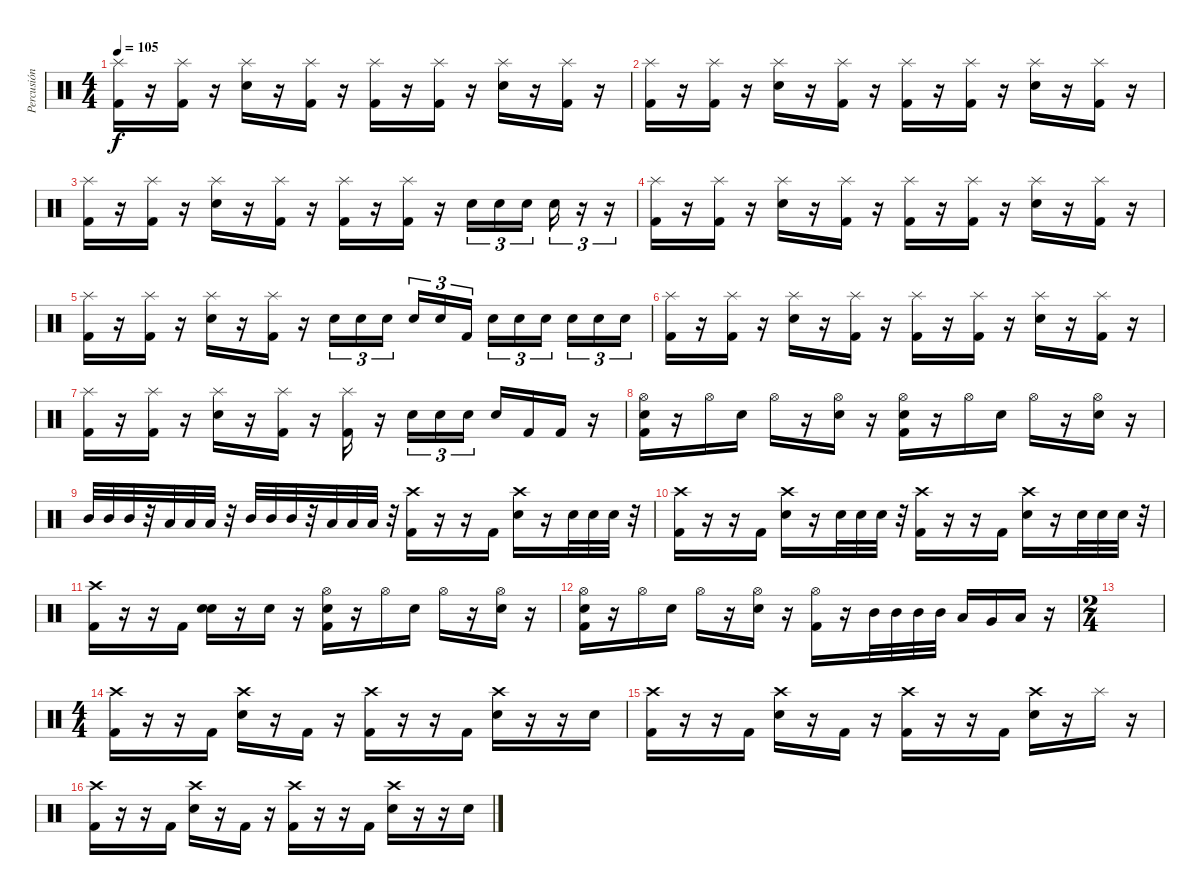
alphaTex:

\track ("Percusión" "Percusión") {instrument percussion}
\staff {score}
\articulation defaults
\ts (4 4)
\tempo 105
\clef neutral
\ks c
("Splash (hit)" "Kick (hit) 2").16{dy f} r.16 ("Splash (hit)" "Kick (hit) 2").16 r.16 ("Splash (hit)" "Electric Snare (hit)").16 r.16 ("Splash (hit)" "Kick (hit) 2").16 r.16 ("Splash (hit)" "Kick (hit) 2").16 r.16 ("Splash (hit)" "Kick (hit) 2").16 r.16 ("Splash (hit)" "Electric Snare (hit)").16 r.16 ("Splash (hit)" "Kick (hit) 2").16 r.16 |
("Splash (hit)" "Kick (hit) 2").16 r.16 ("Splash (hit)" "Kick (hit) 2").16 r.16 ("Splash (hit)" "Electric Snare (hit)").16 r.16 ("Splash (hit)" "Kick (hit) 2").16 r.16 ("Splash (hit)" "Kick (hit) 2").16 r.16 ("Splash (hit)" "Kick (hit) 2").16 r.16 ("Splash (hit)" "Electric Snare (hit)").16 r.16 ("Splash (hit)" "Kick (hit) 2").16 r.16 |
("Splash (hit)" "Kick (hit) 2").16 r.16 ("Splash (hit)" "Kick (hit) 2").16 r.16 ("Splash (hit)" "Electric Snare (hit)").16 r.16 ("Splash (hit)" "Kick (hit) 2").16 r.16 ("Splash (hit)" "Kick (hit) 2").16 r.16 ("Splash (hit)" "Kick (hit) 2").16 r.16 "Electric Snare (hit)".16{tu (3 2)} "Electric Snare (hit)".16{tu (3 2)} "Electric Snare (hit)".16{tu (3 2) beam splitsecondary} "Electric Snare (hit)".16{tu (3 2)} r.16{tu (3 2)} r.16{tu (3 2)} |
("Splash (hit)" "Kick (hit) 2").16 r.16 ("Splash (hit)" "Kick (hit) 2").16 r.16 ("Splash (hit)" "Electric Snare (hit)").16 r.16 ("Splash (hit)" "Kick (hit) 2").16 r.16 ("Splash (hit)" "Kick (hit) 2").16 r.16 ("Splash (hit)" "Kick (hit) 2").16 r.16 ("Splash (hit)" "Electric Snare (hit)").16 r.16 ("Splash (hit)" "Kick (hit) 2").16 r.16 |
("Splash (hit)" "Kick (hit) 2").16 r.16 ("Splash (hit)" "Kick (hit) 2").16 r.16 ("Splash (hit)" "Electric Snare (hit)").16 r.16 ("Splash (hit)" "Kick (hit) 2").16 r.16 "Electric Snare (hit)".16{tu (3 2)} "Electric Snare (hit)".16{tu (3 2)} "Electric Snare (hit)".16{tu (3 2) beam splitsecondary} "Electric Snare (hit)".16{tu (3 2)} "Electric Snare (hit)".16{tu (3 2)} "Kick (hit) 2".16{tu (3 2)} "Electric Snare (hit)".16{tu (3 2)} "Electric Snare (hit)".16{tu (3 2)} "Electric Snare (hit)".16{tu (3 2) beam splitsecondary} "Electric Snare (hit)".16{tu (3 2)} "Electric Snare (hit)".16{tu (3 2)} "Electric Snare (hit)".16{tu (3 2)} |
("Splash (hit)" "Kick (hit) 2").16 r.16 ("Splash (hit)" "Kick (hit) 2").16 r.16 ("Splash (hit)" "Electric Snare (hit)").16 r.16 ("Splash (hit)" "Kick (hit) 2").16 r.16 ("Splash (hit)" "Kick (hit) 2").16 r.16 ("Splash (hit)" "Kick (hit) 2").16 r.16 ("Splash (hit)" "Electric Snare (hit)").16 r.16 ("Splash (hit)" "Kick (hit) 2").16 r.16 |
("Splash (hit)" "Kick (hit) 2").16 r.16 ("Splash (hit)" "Kick (hit) 2").16 r.16 ("Splash (hit)" "Electric Snare (hit)").16 r.16 ("Splash (hit)" "Kick (hit) 2").16 r.16 ("Splash (hit)" "Kick (hit) 2").16 r.16 "Electric Snare (hit)".16{tu (3 2)} "Electric Snare (hit)".16{tu (3 2)} "Electric Snare (hit)".16{tu (3 2)} "Electric Snare (hit)".16 "Kick (hit) 2".16 "Kick (hit) 2".16 r.16 |
("Hi-Hat (open)" "Electric Snare (hit)" "Kick (hit) 2").16 r.16 "Hi-Hat (open)".16 "Electric Snare (hit)".16 "Hi-Hat (open)".16 r.16 ("Hi-Hat (open)" "Electric Snare (hit)").16 r.16 ("Hi-Hat (open)" "Electric Snare (hit)" "Kick (hit) 2").16 r.16 "Hi-Hat (open)".16 "Electric Snare (hit)".16 "Hi-Hat (open)".16 r.16 ("Hi-Hat (open)" "Electric Snare (hit)").16 r.16 |
"Mid Tom (hit)".32 "Mid Tom (hit)".32 "Mid Tom (hit)".32 r.32 "Low Tom (hit)".32 "Low Tom (hit)".32 "Low Tom (hit)".32 r.32 "Mid Tom (hit)".32 "Mid Tom (hit)".32 "Mid Tom (hit)".32 r.32 "Low Tom (hit)".32 "Low Tom (hit)".32 "Low Tom (hit)".32 r.32 ("Crash high (hit)" "Kick (hit) 2").16 r.16 r.16 "Kick (hit) 2".16 ("Crash high (hit)" "Electric Snare (hit)").16 r.16 "Electric Snare (hit)".32 "Electric Snare (hit)".32 "Electric Snare (hit)".32 r.32 |
("Crash high (hit)" "Kick (hit) 2").16 r.16 r.16 "Kick (hit) 2".16 ("Crash high (hit)" "Electric Snare (hit)").16 r.16 "Electric Snare (hit)".32 "Electric Snare (hit)".32 "Electric Snare (hit)".32 r.32 ("Crash high (hit)" "Kick (hit) 2").16 r.16 r.16 "Kick (hit) 2".16 ("Crash high (hit)" "Electric Snare (hit)").16 r.16 "Electric Snare (hit)".32 "Electric Snare (hit)".32 "Electric Snare (hit)".32 r.32 |
("Crash high (hit)" "Kick (hit) 2").16 r.16 r.16 "Kick (hit) 2".16 ("Electric Snare (hit)" "Electric Snare (hit)").16 r.16 "Electric Snare (hit)".16 r.16 ("Hi-Hat (open)" "Electric Snare (hit)" "Kick (hit) 2").16 r.16 "Hi-Hat (open)".16 "Electric Snare (hit)".16 "Hi-Hat (open)".16 r.16 ("Hi-Hat (open)" "Electric Snare (hit)").16 r.16 |
("Hi-Hat (open)" "Electric Snare (hit)" "Kick (hit) 2").16 r.16 "Hi-Hat (open)".16 "Electric Snare (hit)".16 "Hi-Hat (open)".16 r.16 ("Hi-Hat (open)" "Electric Snare (hit)").16 r.16 ("Hi-Hat (open)" "Kick (hit) 2").16 r.16 "Mid Tom (hit)".32 "Mid Tom (hit)".32 "Mid Tom (hit)".32 "Mid Tom (hit)".32 "Low Tom (hit)".16 "Very Low Tom (hit)".16 "Low Floor Tom (hit)".16 r.16 |
\ts (2 4)
|
\ts (4 4)
("Crash high (hit)" "Kick (hit) 2").16 r.16 r.16 "Kick (hit) 2".16 ("Crash high (hit)" "Electric Snare (hit)").16 r.16 "Kick (hit) 2".16 r.16 ("Crash high (hit)" "Kick (hit) 2").16 r.16 r.16 "Kick (hit) 2".16 ("Crash high (hit)" "Electric Snare (hit)").16 r.16 r.16 "Electric Snare (hit)".16 |
("Crash high (hit)" "Kick (hit) 2").16 r.16 r.16 "Kick (hit) 2".16 ("Crash high (hit)" "Electric Snare (hit)").16 r.16 "Kick (hit) 2".16 r.16 ("Crash high (hit)" "Kick (hit) 2").16 r.16 r.16 "Kick (hit) 2".16 ("Crash high (hit)" "Electric Snare (hit)").16 r.16 "Splash (hit)".16 r.16 |
("Crash high (hit)" "Kick (hit) 2").16 r.16 r.16 "Kick (hit) 2".16 ("Crash high (hit)" "Electric Snare (hit)").16 r.16 "Kick (hit) 2".16 r.16 ("Crash high (hit)" "Kick (hit) 2").16 r.16 r.16 "Kick (hit) 2".16 ("Crash high (hit)" "Electric Snare (hit)").16 r.16 r.16 "Electric Snare (hit)".16
